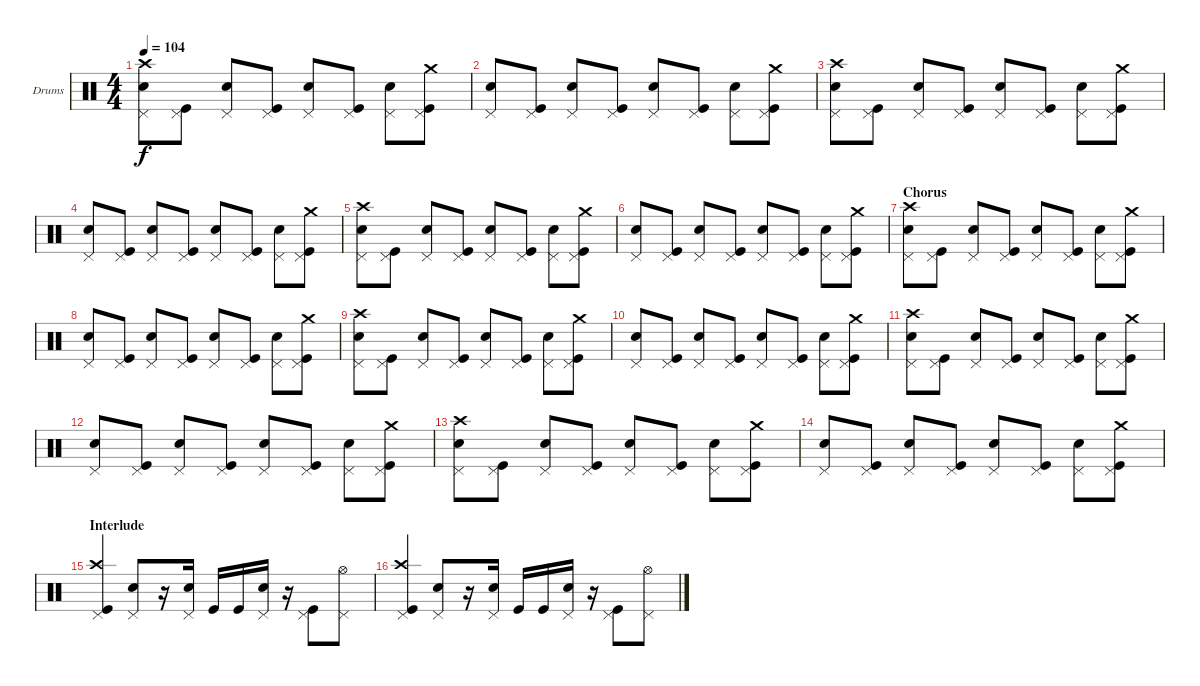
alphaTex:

\defaultSystemsLayout 4
\bracketExtendMode groupsimilarinstruments
\firstSystemTrackNameOrientation horizontal
\otherSystemsTrackNameOrientation horizontal
\track ("Drumkit" "Drums") {instrument percussion}
\staff {score}
\articulation defaults
\ts (4 4)
\tempo 104
\clef neutral
\ks c
("Pedal Hi-Hat (hit)" "Snare (hit) 2" "Crash high (hit)").8{dy f} ("Pedal Hi-Hat (hit)" "Kick (hit)").8 ("Pedal Hi-Hat (hit)" "Snare (hit) 2").8 ("Pedal Hi-Hat (hit)" "Kick (hit)").8 ("Pedal Hi-Hat (hit)" "Snare (hit) 2").8 ("Pedal Hi-Hat (hit)" "Kick (hit)").8 ("Pedal Hi-Hat (hit)" "Snare (hit) 2").8 ("Pedal Hi-Hat (hit)" "Kick (hit)" "Crash medium (hit)").8 |
("Pedal Hi-Hat (hit)" "Snare (hit) 2").8 ("Pedal Hi-Hat (hit)" "Kick (hit)").8 ("Pedal Hi-Hat (hit)" "Snare (hit) 2").8 ("Pedal Hi-Hat (hit)" "Kick (hit)").8 ("Pedal Hi-Hat (hit)" "Snare (hit) 2").8 ("Pedal Hi-Hat (hit)" "Kick (hit)").8 ("Pedal Hi-Hat (hit)" "Snare (hit) 2").8 ("Pedal Hi-Hat (hit)" "Kick (hit)" "Crash medium (hit)").8 |
("Pedal Hi-Hat (hit)" "Snare (hit) 2" "Crash high (hit)").8 ("Pedal Hi-Hat (hit)" "Kick (hit)").8 ("Pedal Hi-Hat (hit)" "Snare (hit) 2").8 ("Pedal Hi-Hat (hit)" "Kick (hit)").8 ("Pedal Hi-Hat (hit)" "Snare (hit) 2").8 ("Pedal Hi-Hat (hit)" "Kick (hit)").8 ("Pedal Hi-Hat (hit)" "Snare (hit) 2").8 ("Pedal Hi-Hat (hit)" "Kick (hit)" "Crash medium (hit)").8 |
("Pedal Hi-Hat (hit)" "Snare (hit) 2").8 ("Pedal Hi-Hat (hit)" "Kick (hit)").8 ("Pedal Hi-Hat (hit)" "Snare (hit) 2").8 ("Pedal Hi-Hat (hit)" "Kick (hit)").8 ("Pedal Hi-Hat (hit)" "Snare (hit) 2").8 ("Pedal Hi-Hat (hit)" "Kick (hit)").8 ("Pedal Hi-Hat (hit)" "Snare (hit) 2").8 ("Pedal Hi-Hat (hit)" "Kick (hit)" "Crash medium (hit)").8 |
("Pedal Hi-Hat (hit)" "Snare (hit) 2" "Crash high (hit)").8 ("Pedal Hi-Hat (hit)" "Kick (hit)").8 ("Pedal Hi-Hat (hit)" "Snare (hit) 2").8 ("Pedal Hi-Hat (hit)" "Kick (hit)").8 ("Pedal Hi-Hat (hit)" "Snare (hit) 2").8 ("Pedal Hi-Hat (hit)" "Kick (hit)").8 ("Pedal Hi-Hat (hit)" "Snare (hit) 2").8 ("Pedal Hi-Hat (hit)" "Kick (hit)" "Crash medium (hit)").8 |
("Pedal Hi-Hat (hit)" "Snare (hit) 2").8 ("Pedal Hi-Hat (hit)" "Kick (hit)").8 ("Pedal Hi-Hat (hit)" "Snare (hit) 2").8 ("Pedal Hi-Hat (hit)" "Kick (hit)").8 ("Pedal Hi-Hat (hit)" "Snare (hit) 2").8 ("Pedal Hi-Hat (hit)" "Kick (hit)").8 ("Pedal Hi-Hat (hit)" "Snare (hit) 2").8 ("Pedal Hi-Hat (hit)" "Kick (hit)" "Crash medium (hit)").8 |
\section ("" "Chorus")
("Pedal Hi-Hat (hit)" "Snare (hit) 2" "Crash high (hit)").8 ("Pedal Hi-Hat (hit)" "Kick (hit)").8 ("Pedal Hi-Hat (hit)" "Snare (hit) 2").8 ("Pedal Hi-Hat (hit)" "Kick (hit)").8 ("Pedal Hi-Hat (hit)" "Snare (hit) 2").8 ("Pedal Hi-Hat (hit)" "Kick (hit)").8 ("Pedal Hi-Hat (hit)" "Snare (hit) 2").8 ("Pedal Hi-Hat (hit)" "Kick (hit)" "Crash medium (hit)").8 |
("Pedal Hi-Hat (hit)" "Snare (hit) 2").8 ("Pedal Hi-Hat (hit)" "Kick (hit)").8 ("Pedal Hi-Hat (hit)" "Snare (hit) 2").8 ("Pedal Hi-Hat (hit)" "Kick (hit)").8 ("Pedal Hi-Hat (hit)" "Snare (hit) 2").8 ("Pedal Hi-Hat (hit)" "Kick (hit)").8 ("Pedal Hi-Hat (hit)" "Snare (hit) 2").8 ("Pedal Hi-Hat (hit)" "Kick (hit)" "Crash medium (hit)").8 |
("Pedal Hi-Hat (hit)" "Snare (hit) 2" "Crash high (hit)").8 ("Pedal Hi-Hat (hit)" "Kick (hit)").8 ("Pedal Hi-Hat (hit)" "Snare (hit) 2").8 ("Pedal Hi-Hat (hit)" "Kick (hit)").8 ("Pedal Hi-Hat (hit)" "Snare (hit) 2").8 ("Pedal Hi-Hat (hit)" "Kick (hit)").8 ("Pedal Hi-Hat (hit)" "Snare (hit) 2").8 ("Pedal Hi-Hat (hit)" "Kick (hit)" "Crash medium (hit)").8 |
("Pedal Hi-Hat (hit)" "Snare (hit) 2").8 ("Pedal Hi-Hat (hit)" "Kick (hit)").8 ("Pedal Hi-Hat (hit)" "Snare (hit) 2").8 ("Pedal Hi-Hat (hit)" "Kick (hit)").8 ("Pedal Hi-Hat (hit)" "Snare (hit) 2").8 ("Pedal Hi-Hat (hit)" "Kick (hit)").8 ("Pedal Hi-Hat (hit)" "Snare (hit) 2").8 ("Pedal Hi-Hat (hit)" "Kick (hit)" "Crash medium (hit)").8 |
("Pedal Hi-Hat (hit)" "Snare (hit) 2" "Crash high (hit)").8 ("Pedal Hi-Hat (hit)" "Kick (hit)").8 ("Pedal Hi-Hat (hit)" "Snare (hit) 2").8 ("Pedal Hi-Hat (hit)" "Kick (hit)").8 ("Pedal Hi-Hat (hit)" "Snare (hit) 2").8 ("Pedal Hi-Hat (hit)" "Kick (hit)").8 ("Pedal Hi-Hat (hit)" "Snare (hit) 2").8 ("Pedal Hi-Hat (hit)" "Kick (hit)" "Crash medium (hit)").8 |
("Pedal Hi-Hat (hit)" "Snare (hit) 2").8 ("Pedal Hi-Hat (hit)" "Kick (hit)").8 ("Pedal Hi-Hat (hit)" "Snare (hit) 2").8 ("Pedal Hi-Hat (hit)" "Kick (hit)").8 ("Pedal Hi-Hat (hit)" "Snare (hit) 2").8 ("Pedal Hi-Hat (hit)" "Kick (hit)").8 ("Pedal Hi-Hat (hit)" "Snare (hit) 2").8 ("Pedal Hi-Hat (hit)" "Kick (hit)" "Crash medium (hit)").8 |
("Pedal Hi-Hat (hit)" "Snare (hit) 2" "Crash high (hit)").8 ("Pedal Hi-Hat (hit)" "Kick (hit)").8 ("Pedal Hi-Hat (hit)" "Snare (hit) 2").8 ("Pedal Hi-Hat (hit)" "Kick (hit)").8 ("Pedal Hi-Hat (hit)" "Snare (hit) 2").8 ("Pedal Hi-Hat (hit)" "Kick (hit)").8 ("Pedal Hi-Hat (hit)" "Snare (hit) 2").8 ("Pedal Hi-Hat (hit)" "Kick (hit)" "Crash medium (hit)").8 |
("Pedal Hi-Hat (hit)" "Snare (hit) 2").8 ("Pedal Hi-Hat (hit)" "Kick (hit)").8 ("Pedal Hi-Hat (hit)" "Snare (hit) 2").8 ("Pedal Hi-Hat (hit)" "Kick (hit)").8 ("Pedal Hi-Hat (hit)" "Snare (hit) 2").8 ("Pedal Hi-Hat (hit)" "Kick (hit)").8 ("Pedal Hi-Hat (hit)" "Snare (hit) 2").8 ("Pedal Hi-Hat (hit)" "Kick (hit)" "Crash medium (hit)").8 |
\section ("" "Interlude")
("Pedal Hi-Hat (hit)" "Crash high (hit)" "Kick (hit)").4 ("Pedal Hi-Hat (hit)" "Snare (hit) 2").8 r.16 ("Pedal Hi-Hat (hit)" "Snare (hit) 2").16 "Kick (hit)".16 "Kick (hit)".16 ("Pedal Hi-Hat (hit)" "Snare (hit) 2").16 r.16 ("Pedal Hi-Hat (hit)" "Kick (hit)").8 ("Pedal Hi-Hat (hit)" "Hi-Hat (open)").8 |
("Pedal Hi-Hat (hit)" "Crash high (hit)" "Kick (hit)").4 ("Pedal Hi-Hat (hit)" "Snare (hit) 2").8 r.16 ("Pedal Hi-Hat (hit)" "Snare (hit) 2").16 "Kick (hit)".16 "Kick (hit)".16 ("Pedal Hi-Hat (hit)" "Snare (hit) 2").16 r.16 ("Pedal Hi-Hat (hit)" "Kick (hit)").8 ("Pedal Hi-Hat (hit)" "Hi-Hat (open)").8
